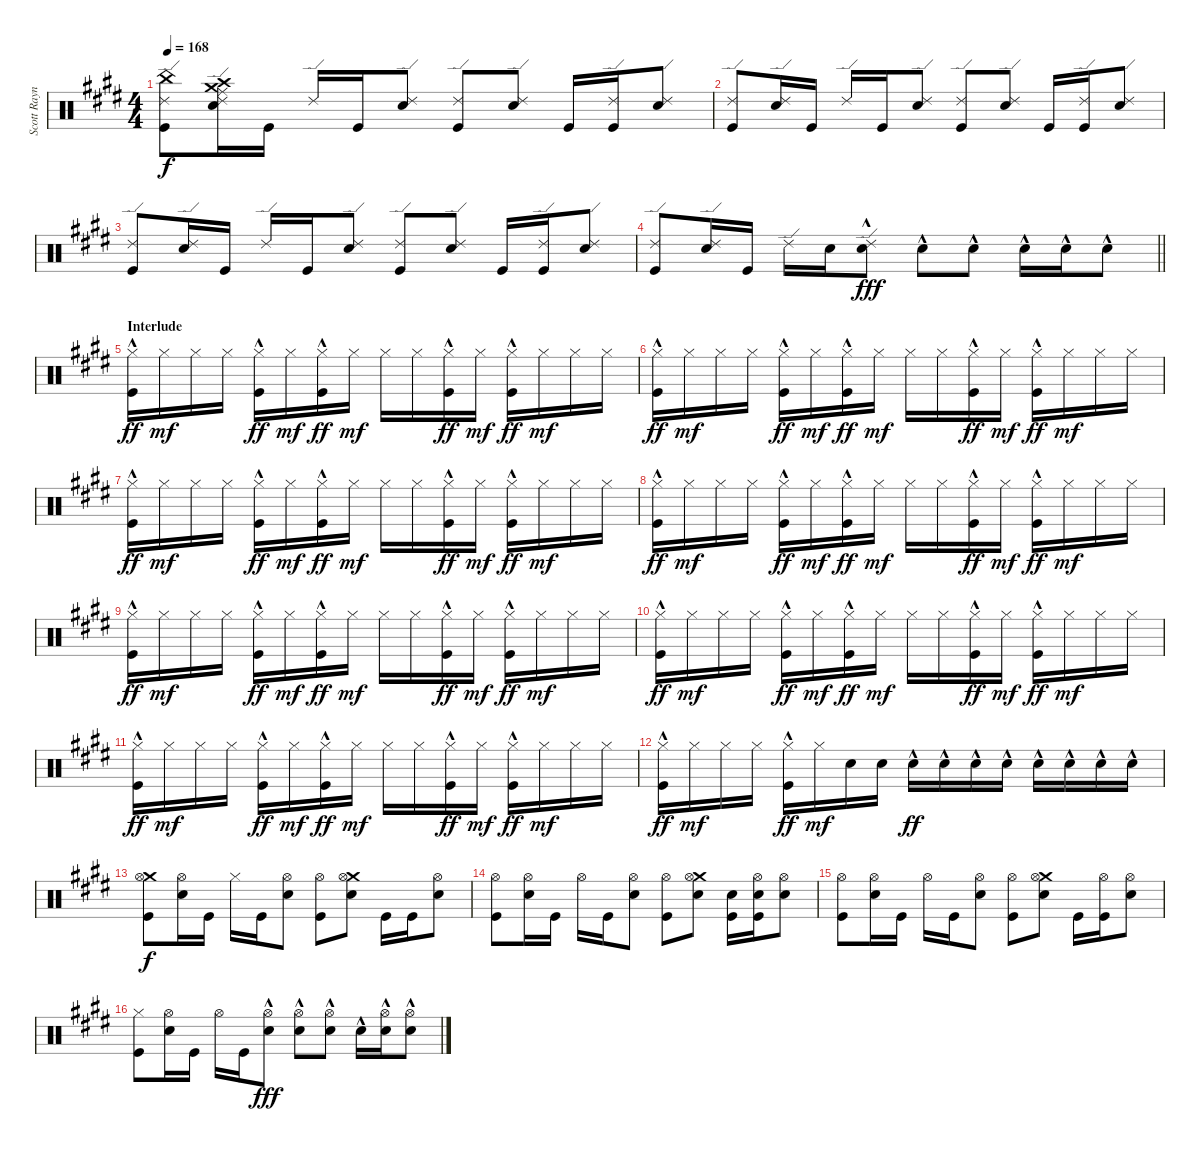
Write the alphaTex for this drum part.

\track ("Scott Raynor" "Scott Rayn") {instrument percussion}
\staff {score}
\articulation defaults
\ts (4 4)
\tempo 168
\clef neutral
\ks e
("China (hit)"{t} "Ride (edge) 2" "Kick (hit)").8{dy f} ("Ride (middle)" "Crash high (hit)" "Crash medium (hit)" "Ride (edge) 2" "Electric Snare (hit)").16 "Kick (hit)".16 "Ride (edge) 2".16 "Kick (hit)".16 ("Ride (edge) 2" "Electric Snare (hit)").8 ("Ride (edge) 2" "Kick (hit)").8 ("Ride (edge) 2" "Electric Snare (hit)").8 "Kick (hit)".16 ("Ride (edge) 2" "Kick (hit)").16 ("Ride (edge) 2" "Electric Snare (hit)").8 |
("Ride (edge) 2" "Kick (hit)").8 ("Ride (edge) 2" "Electric Snare (hit)").16 "Kick (hit)".16 "Ride (edge) 2".16 "Kick (hit)".16 ("Ride (edge) 2" "Electric Snare (hit)").8 ("Ride (edge) 2" "Kick (hit)").8 ("Ride (edge) 2" "Electric Snare (hit)").8 "Kick (hit)".16 ("Ride (edge) 2" "Kick (hit)").16 ("Ride (edge) 2" "Electric Snare (hit)").8 |
("Ride (edge) 2" "Kick (hit)").8 ("Ride (edge) 2" "Electric Snare (hit)").16 "Kick (hit)".16 "Ride (edge) 2".16 "Kick (hit)".16 ("Ride (edge) 2" "Electric Snare (hit)").8 ("Ride (edge) 2" "Kick (hit)").8 ("Ride (edge) 2" "Electric Snare (hit)").8 "Kick (hit)".16 ("Ride (edge) 2" "Kick (hit)").16 ("Ride (edge) 2" "Electric Snare (hit)").8 |
\barLineRight lightlight
("Ride (edge) 2" "Kick (hit)").8 ("Ride (edge) 2" "Electric Snare (hit)").16 "Kick (hit)".16 "Ride (edge) 2".16 "Electric Snare (hit)".16 ("Ride (edge) 2" "Electric Snare (hit)"{hac}).8{dy fff} "Electric Snare (hit)"{hac}.8 "Electric Snare (hit)"{hac}.8 "Electric Snare (hit)"{hac}.16 "Electric Snare (hit)"{hac}.16 "Electric Snare (hit)"{hac}.8 |
\section ("" "Interlude")
("Hi-Hat (closed)" "Kick (hit)"{hac}).16{dy ff} "Hi-Hat (closed)".16{dy mf} "Hi-Hat (closed)".16 "Hi-Hat (closed)".16 ("Hi-Hat (closed)" "Kick (hit)"{hac}).16{dy ff} "Hi-Hat (closed)".16{dy mf} ("Hi-Hat (closed)" "Kick (hit)"{hac}).16{dy ff} "Hi-Hat (closed)".16{dy mf} "Hi-Hat (closed)".16 "Hi-Hat (closed)".16 ("Hi-Hat (closed)" "Kick (hit)"{hac}).16{dy ff} "Hi-Hat (closed)".16{dy mf} ("Hi-Hat (closed)" "Kick (hit)"{hac}).16{dy ff} "Hi-Hat (closed)".16{dy mf} "Hi-Hat (closed)".16 "Hi-Hat (closed)".16 |
("Hi-Hat (closed)" "Kick (hit)"{hac}).16{dy ff} "Hi-Hat (closed)".16{dy mf} "Hi-Hat (closed)".16 "Hi-Hat (closed)".16 ("Hi-Hat (closed)" "Kick (hit)"{hac}).16{dy ff} "Hi-Hat (closed)".16{dy mf} ("Hi-Hat (closed)" "Kick (hit)"{hac}).16{dy ff} "Hi-Hat (closed)".16{dy mf} "Hi-Hat (closed)".16 "Hi-Hat (closed)".16 ("Hi-Hat (closed)" "Kick (hit)"{hac}).16{dy ff} "Hi-Hat (closed)".16{dy mf} ("Hi-Hat (closed)" "Kick (hit)"{hac}).16{dy ff} "Hi-Hat (closed)".16{dy mf} "Hi-Hat (closed)".16 "Hi-Hat (closed)".16 |
("Hi-Hat (closed)" "Kick (hit)"{hac}).16{dy ff} "Hi-Hat (closed)".16{dy mf} "Hi-Hat (closed)".16 "Hi-Hat (closed)".16 ("Hi-Hat (closed)" "Kick (hit)"{hac}).16{dy ff} "Hi-Hat (closed)".16{dy mf} ("Hi-Hat (closed)" "Kick (hit)"{hac}).16{dy ff} "Hi-Hat (closed)".16{dy mf} "Hi-Hat (closed)".16 "Hi-Hat (closed)".16 ("Hi-Hat (closed)" "Kick (hit)"{hac}).16{dy ff} "Hi-Hat (closed)".16{dy mf} ("Hi-Hat (closed)" "Kick (hit)"{hac}).16{dy ff} "Hi-Hat (closed)".16{dy mf} "Hi-Hat (closed)".16 "Hi-Hat (closed)".16 |
("Hi-Hat (closed)" "Kick (hit)"{hac}).16{dy ff} "Hi-Hat (closed)".16{dy mf} "Hi-Hat (closed)".16 "Hi-Hat (closed)".16 ("Hi-Hat (closed)" "Kick (hit)"{hac}).16{dy ff} "Hi-Hat (closed)".16{dy mf} ("Hi-Hat (closed)" "Kick (hit)"{hac}).16{dy ff} "Hi-Hat (closed)".16{dy mf} "Hi-Hat (closed)".16 "Hi-Hat (closed)".16 ("Hi-Hat (closed)" "Kick (hit)"{hac}).16{dy ff} "Hi-Hat (closed)".16{dy mf} ("Hi-Hat (closed)" "Kick (hit)"{hac}).16{dy ff} "Hi-Hat (closed)".16{dy mf} "Hi-Hat (closed)".16 "Hi-Hat (closed)".16 |
("Hi-Hat (closed)" "Kick (hit)"{hac}).16{dy ff} "Hi-Hat (closed)".16{dy mf} "Hi-Hat (closed)".16 "Hi-Hat (closed)".16 ("Hi-Hat (closed)" "Kick (hit)"{hac}).16{dy ff} "Hi-Hat (closed)".16{dy mf} ("Hi-Hat (closed)" "Kick (hit)"{hac}).16{dy ff} "Hi-Hat (closed)".16{dy mf} "Hi-Hat (closed)".16 "Hi-Hat (closed)".16 ("Hi-Hat (closed)" "Kick (hit)"{hac}).16{dy ff} "Hi-Hat (closed)".16{dy mf} ("Hi-Hat (closed)" "Kick (hit)"{hac}).16{dy ff} "Hi-Hat (closed)".16{dy mf} "Hi-Hat (closed)".16 "Hi-Hat (closed)".16 |
("Hi-Hat (closed)" "Kick (hit)"{hac}).16{dy ff} "Hi-Hat (closed)".16{dy mf} "Hi-Hat (closed)".16 "Hi-Hat (closed)".16 ("Hi-Hat (closed)" "Kick (hit)"{hac}).16{dy ff} "Hi-Hat (closed)".16{dy mf} ("Hi-Hat (closed)" "Kick (hit)"{hac}).16{dy ff} "Hi-Hat (closed)".16{dy mf} "Hi-Hat (closed)".16 "Hi-Hat (closed)".16 ("Hi-Hat (closed)" "Kick (hit)"{hac}).16{dy ff} "Hi-Hat (closed)".16{dy mf} ("Hi-Hat (closed)" "Kick (hit)"{hac}).16{dy ff} "Hi-Hat (closed)".16{dy mf} "Hi-Hat (closed)".16 "Hi-Hat (closed)".16 |
("Hi-Hat (closed)" "Kick (hit)"{hac}).16{dy ff} "Hi-Hat (closed)".16{dy mf} "Hi-Hat (closed)".16 "Hi-Hat (closed)".16 ("Hi-Hat (closed)" "Kick (hit)"{hac}).16{dy ff} "Hi-Hat (closed)".16{dy mf} ("Hi-Hat (closed)" "Kick (hit)"{hac}).16{dy ff} "Hi-Hat (closed)".16{dy mf} "Hi-Hat (closed)".16 "Hi-Hat (closed)".16 ("Hi-Hat (closed)" "Kick (hit)"{hac}).16{dy ff} "Hi-Hat (closed)".16{dy mf} ("Hi-Hat (closed)" "Kick (hit)"{hac}).16{dy ff} "Hi-Hat (closed)".16{dy mf} "Hi-Hat (closed)".16 "Hi-Hat (closed)".16 |
("Hi-Hat (closed)" "Kick (hit)"{hac}).16{dy ff} "Hi-Hat (closed)".16{dy mf} "Hi-Hat (closed)".16 "Hi-Hat (closed)".16 ("Hi-Hat (closed)" "Kick (hit)"{hac}).16{dy ff} "Hi-Hat (closed)".16{dy mf} "Electric Snare (hit)".16 "Electric Snare (hit)".16 "Electric Snare (hit)"{hac}.16{dy ff} "Electric Snare (hit)"{hac}.16 "Electric Snare (hit)"{hac}.16 "Electric Snare (hit)"{hac}.16 "Electric Snare (hit)"{hac}.16 "Electric Snare (hit)"{hac}.16 "Electric Snare (hit)"{hac}.16 "Electric Snare (hit)"{hac}.16 |
("Crash medium (hit)" "Hi-Hat (open)" "Kick (hit)").8{dy f} ("Hi-Hat (open)" "Electric Snare (hit)").16 "Kick (hit)".16 "Hi-Hat (closed)".16 "Kick (hit)".16 ("Hi-Hat (open)" "Electric Snare (hit)").8 ("Hi-Hat (open)" "Kick (hit)").8 ("Crash medium (hit)" "Hi-Hat (open)" "Electric Snare (hit)").8 "Kick (hit)".16 "Kick (hit)".16 ("Hi-Hat (open)" "Electric Snare (hit)").8 |
("Hi-Hat (open)" "Kick (hit)").8 ("Hi-Hat (open)" "Electric Snare (hit)").16 "Kick (hit)".16 "Hi-Hat (open)".16 "Kick (hit)".16 ("Hi-Hat (open)" "Electric Snare (hit)").8 ("Hi-Hat (open)" "Kick (hit)").8 ("Crash medium (hit)" "Hi-Hat (open)" "Electric Snare (hit)").8 ("Electric Snare (hit)" "Kick (hit)").16 ("Electric Snare (hit)" "Hi-Hat (open)" "Kick (hit)").16 ("Hi-Hat (open)" "Electric Snare (hit)").8 |
("Hi-Hat (open)" "Kick (hit)").8 ("Hi-Hat (open)" "Electric Snare (hit)").16 "Kick (hit)".16 "Hi-Hat (open)".16 "Kick (hit)".16 ("Hi-Hat (open)" "Electric Snare (hit)").8 ("Hi-Hat (open)" "Kick (hit)").8 ("Crash medium (hit)" "Hi-Hat (open)" "Electric Snare (hit)").8 "Kick (hit)".16 ("Hi-Hat (open)" "Kick (hit)").16 ("Hi-Hat (open)" "Electric Snare (hit)").8 |
("Hi-Hat (closed)" "Kick (hit)").8 ("Hi-Hat (open)" "Electric Snare (hit)").16 "Kick (hit)".16 "Hi-Hat (open)".16 "Kick (hit)".16 ("Hi-Hat (open)" "Electric Snare (hit)"{hac}).8{dy fff} ("Hi-Hat (open)" "Electric Snare (hit)"{hac}).8 ("Hi-Hat (open)" "Electric Snare (hit)"{hac}).8 "Electric Snare (hit)"{hac}.16 ("Hi-Hat (open)" "Electric Snare (hit)"{hac}).16 ("Hi-Hat (open)" "Electric Snare (hit)"{hac}).8
